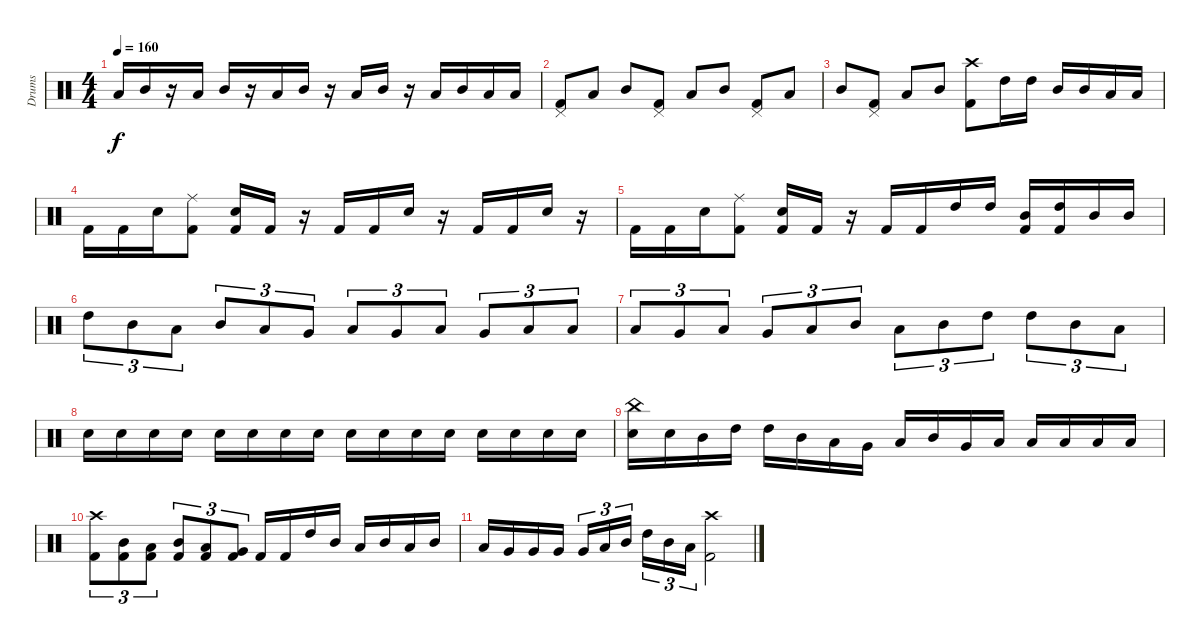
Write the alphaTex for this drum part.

\track ("Drums" "Drums") {instrument percussion}
\staff {score}
\articulation defaults
\ts (4 4)
\tempo 160
\clef neutral
\ks c "Low Tom (hit)".16{dy f} "Mid Tom (hit)".16
r.16 "Low Tom (hit)".16 "Mid Tom (hit)".16 r.16 "Low Tom (hit)".16 "Mid Tom (hit)".16 r.16 "Low Tom (hit)".16 "Mid Tom (hit)".16 r.16 "Low Tom (hit)".16 "Mid Tom (hit)".16 "Low Tom (hit)".16 "Low Tom (hit)".16 |
("Pedal Hi-Hat (hit)" "Kick (hit) 2").8 "Low Tom (hit)".8 "Mid Tom (hit)".8 ("Pedal Hi-Hat (hit)" "Kick (hit) 2").8 "Low Tom (hit)".8 "Mid Tom (hit)".8 ("Pedal Hi-Hat (hit)" "Kick (hit) 2").8 "Low Tom (hit)".8 |
"Mid Tom (hit)".8 ("Pedal Hi-Hat (hit)" "Kick (hit) 2").8 "Low Tom (hit)".8 "Mid Tom (hit)".8 ("Kick (hit) 2" "Crash high (hit)").8 "High Tom (hit)".16 "High Tom (hit)".16 "Mid Tom (hit)".16 "Mid Tom (hit)".16 "Low Tom (hit)".16 "Low Tom (hit)".16 |
"Kick (hit) 2".16 "Kick (hit) 2".16 "Electric Snare (hit)".16 ("Ride (middle)" "Kick (hit) 2").8 ("Electric Snare (hit)" "Kick (hit) 2").16 "Kick (hit) 2".16 r.16 "Kick (hit) 2".16 "Kick (hit) 2".16 "Electric Snare (hit)".16 r.16 "Kick (hit) 2".16 "Kick (hit) 2".16 "Electric Snare (hit)".16 r.16 |
"Kick (hit) 2".16 "Kick (hit) 2".16 "Electric Snare (hit)".16 ("Ride (middle)" "Kick (hit) 2").8 ("Electric Snare (hit)" "Kick (hit) 2").16 "Kick (hit) 2".16 r.16 "Kick (hit) 2".16 "Kick (hit) 2".16 "High Tom (hit)".16 "High Tom (hit)".16 ("Mid Tom (hit)" "Kick (hit) 2").16 ("High Tom (hit)" "Kick (hit) 2").16 "Mid Tom (hit)".16 "Mid Tom (hit)".16 |
"High Tom (hit)".8{tu (3 2)} "Mid Tom (hit)".8{tu (3 2)} "Low Tom (hit)".8{tu (3 2)} "Mid Tom (hit)".8{tu (3 2)} "Low Tom (hit)".8{tu (3 2)} "Very Low Tom (hit)".8{tu (3 2)} "Low Tom (hit)".8{tu (3 2)} "Very Low Tom (hit)".8{tu (3 2)} "Low Floor Tom (hit)".8{tu (3 2)} "Very Low Tom (hit)".8{tu (3 2)} "Low Floor Tom (hit)".8{tu (3 2)} "Low Floor Tom (hit)".8{tu (3 2)} |
"Low Floor Tom (hit)".8{tu (3 2)} "Very Low Tom (hit)".8{tu (3 2)} "Low Tom (hit)".8{tu (3 2)} "Very Low Tom (hit)".8{tu (3 2)} "Low Tom (hit)".8{tu (3 2)} "Mid Tom (hit)".8{tu (3 2)} "Low Tom (hit)".8{tu (3 2)} "Mid Tom (hit)".8{tu (3 2)} "High Tom (hit)".8{tu (3 2)} "High Tom (hit)".8{tu (3 2)} "Mid Tom (hit)".8{tu (3 2)} "Low Tom (hit)".8{tu (3 2)} |
"Electric Snare (hit)".16 "Electric Snare (hit)".16 "Electric Snare (hit)".16 "Electric Snare (hit)".16 "Electric Snare (hit)".16 "Electric Snare (hit)".16 "Electric Snare (hit)".16 "Electric Snare (hit)".16 "Electric Snare (hit)".16 "Electric Snare (hit)".16 "Electric Snare (hit)".16 "Electric Snare (hit)".16 "Electric Snare (hit)".16 "Electric Snare (hit)".16 "Electric Snare (hit)".16 "Electric Snare (hit)".16 |
("China (hit)" "Electric Snare (hit)").16 "Electric Snare (hit)".16 "Mid Tom (hit)".16 "High Tom (hit)".16 "High Tom (hit)".16 "Mid Tom (hit)".16 "Low Tom (hit)".16 "Very Low Tom (hit)".16 "Low Tom (hit)".16 "Mid Tom (hit)".16 "Very Low Tom (hit)".16 "Low Floor Tom (hit)".16 "Low Tom (hit)".16 "Low Tom (hit)".16 "Low Tom (hit)".16 "Low Tom (hit)".16 |
("Crash high (hit)" "Kick (hit) 2").8{tu (3 2)} ("Mid Tom (hit)" "Kick (hit) 2").8{tu (3 2)} ("Low Tom (hit)" "Kick (hit) 2").8{tu (3 2)} ("Mid Tom (hit)" "Kick (hit) 2").8{tu (3 2)} ("Low Tom (hit)" "Kick (hit) 2").8{tu (3 2)} ("Very Low Tom (hit)" "Kick (hit) 2").8{tu (3 2)} "Kick (hit) 2".16 "Kick (hit) 2".16 "High Tom (hit)".16 "Mid Tom (hit)".16 "Low Tom (hit)".16 "Mid Tom (hit)".16 "Low Tom (hit)".16 "Mid Tom (hit)".16 |
"Low Tom (hit)".16 "Very Low Tom (hit)".16 "Very Low Tom (hit)".16 "Very Low Tom (hit)".16 "Very Low Tom (hit)".16{tu (3 2)} "Low Tom (hit)".16{tu (3 2)} "Mid Tom (hit)".16{tu (3 2)} "High Tom (hit)".16{tu (3 2)} "Mid Tom (hit)".16{tu (3 2)} "Low Tom (hit)".16{tu (3 2)} ("Crash high (hit)" "Kick (hit) 2").2
